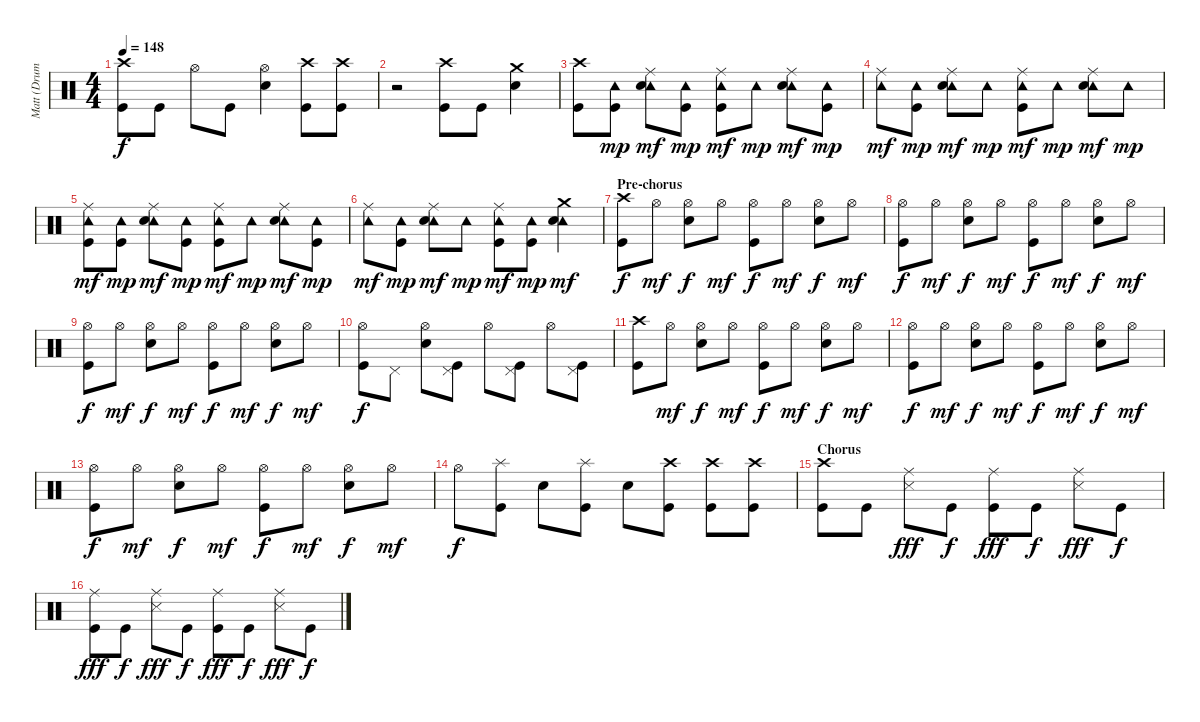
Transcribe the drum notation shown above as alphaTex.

\track ("Matt (Drums)" "Matt (Drum") {instrument percussion}
\staff {score}
\articulation defaults
\ts (4 4)
\tempo 148
\clef neutral
\ks c
("Crash high (hit)" "Kick (hit)").8{dy f} "Kick (hit)".8 "Hi-Hat (open)".8 "Kick (hit)".8 ("Hi-Hat (open)" "Electric Snare (hit)").4 ("Crash high (hit)" "Kick (hit)").8 ("Crash high (hit)" "Kick (hit)").8 |
r.2 ("Crash high (hit)" "Kick (hit)").8 "Kick (hit)".8 ("Crash medium (hit)" "Electric Snare (hit)").4 |
("Crash high (hit)" "Kick (hit)").8 ("Tambourine (hit)" "Kick (hit)").8{dy mp} ("Ride (middle)" "Tambourine (hit)" "Electric Snare (hit)").8{dy mf} ("Tambourine (hit)" "Kick (hit)").8{dy mp} ("Ride (middle)" "Tambourine (hit)" "Kick (hit)").8{dy mf} "Tambourine (hit)".8{dy mp} ("Ride (middle)" "Tambourine (hit)" "Electric Snare (hit)").8{dy mf} ("Tambourine (hit)" "Kick (hit)").8{dy mp} |
("Ride (middle)" "Tambourine (hit)").8{dy mf} ("Tambourine (hit)" "Kick (hit)").8{dy mp} ("Ride (middle)" "Tambourine (hit)" "Electric Snare (hit)").8{dy mf} "Tambourine (hit)".8{dy mp} ("Ride (middle)" "Tambourine (hit)" "Kick (hit)").8{dy mf} "Tambourine (hit)".8{dy mp} ("Ride (middle)" "Tambourine (hit)" "Electric Snare (hit)").8{dy mf} "Tambourine (hit)".8{dy mp} |
("Ride (middle)" "Tambourine (hit)" "Kick (hit)").8{dy mf} ("Tambourine (hit)" "Kick (hit)").8{dy mp} ("Ride (middle)" "Tambourine (hit)" "Electric Snare (hit)").8{dy mf} ("Tambourine (hit)" "Kick (hit)").8{dy mp} ("Ride (middle)" "Tambourine (hit)" "Kick (hit)").8{dy mf} "Tambourine (hit)".8{dy mp} ("Ride (middle)" "Tambourine (hit)" "Electric Snare (hit)").8{dy mf} ("Tambourine (hit)" "Kick (hit)").8{dy mp} |
("Ride (middle)" "Tambourine (hit)").8{dy mf} ("Tambourine (hit)" "Kick (hit)").8{dy mp} ("Ride (middle)" "Tambourine (hit)" "Electric Snare (hit)").8{dy mf} "Tambourine (hit)".8{dy mp} ("Ride (middle)" "Tambourine (hit)" "Kick (hit)").8{dy mf} ("Tambourine (hit)" "Kick (hit)").8{dy mp} ("Crash medium (hit)" "Tambourine (hit)" "Electric Snare (hit)").4{dy mf} |
\section ("" "Pre-chorus")
("Crash high (hit)" "Kick (hit)").8{dy f} "Hi-Hat (open)".8{dy mf} ("Hi-Hat (open)" "Electric Snare (hit)").8{dy f} "Hi-Hat (open)".8{dy mf} ("Hi-Hat (open)" "Kick (hit)").8{dy f} "Hi-Hat (open)".8{dy mf} ("Hi-Hat (open)" "Electric Snare (hit)").8{dy f} "Hi-Hat (open)".8{dy mf} |
("Hi-Hat (open)" "Kick (hit)").8{dy f} "Hi-Hat (open)".8{dy mf} ("Hi-Hat (open)" "Electric Snare (hit)").8{dy f} "Hi-Hat (open)".8{dy mf} ("Hi-Hat (open)" "Kick (hit)").8{dy f} "Hi-Hat (open)".8{dy mf} ("Hi-Hat (open)" "Electric Snare (hit)").8{dy f} "Hi-Hat (open)".8{dy mf} |
("Hi-Hat (open)" "Kick (hit)").8{dy f} "Hi-Hat (open)".8{dy mf} ("Hi-Hat (open)" "Electric Snare (hit)").8{dy f} "Hi-Hat (open)".8{dy mf} ("Hi-Hat (open)" "Kick (hit)").8{dy f} "Hi-Hat (open)".8{dy mf} ("Hi-Hat (open)" "Electric Snare (hit)").8{dy f} "Hi-Hat (open)".8{dy mf} |
("Hi-Hat (open)" "Kick (hit)").8{dy f} "Pedal Hi-Hat (hit)".8 ("Hi-Hat (open)" "Electric Snare (hit)").8 ("Pedal Hi-Hat (hit)" "Kick (hit)").8 "Hi-Hat (open)".8 ("Pedal Hi-Hat (hit)" "Kick (hit)").8 "Hi-Hat (open)".8 ("Pedal Hi-Hat (hit)" "Kick (hit)").8 |
("Crash high (hit)" "Kick (hit)").8 "Hi-Hat (open)".8{dy mf} ("Hi-Hat (open)" "Electric Snare (hit)").8{dy f} "Hi-Hat (open)".8{dy mf} ("Hi-Hat (open)" "Kick (hit)").8{dy f} "Hi-Hat (open)".8{dy mf} ("Hi-Hat (open)" "Electric Snare (hit)").8{dy f} "Hi-Hat (open)".8{dy mf} |
("Hi-Hat (open)" "Kick (hit)").8{dy f} "Hi-Hat (open)".8{dy mf} ("Hi-Hat (open)" "Electric Snare (hit)").8{dy f} "Hi-Hat (open)".8{dy mf} ("Hi-Hat (open)" "Kick (hit)").8{dy f} "Hi-Hat (open)".8{dy mf} ("Hi-Hat (open)" "Electric Snare (hit)").8{dy f} "Hi-Hat (open)".8{dy mf} |
("Hi-Hat (open)" "Kick (hit)").8{dy f} "Hi-Hat (open)".8{dy mf} ("Hi-Hat (open)" "Electric Snare (hit)").8{dy f} "Hi-Hat (open)".8{dy mf} ("Hi-Hat (open)" "Kick (hit)").8{dy f} "Hi-Hat (open)".8{dy mf} ("Hi-Hat (open)" "Electric Snare (hit)").8{dy f} "Hi-Hat (open)".8{dy mf} |
"Hi-Hat (open)".8{dy f} ("Splash (hit)" "Kick (hit)").8 "Electric Snare (hit)".8 ("Splash (hit)" "Kick (hit)").8 "Electric Snare (hit)".8 ("Crash high (hit)" "Kick (hit)").8 ("Crash high (hit)" "Kick (hit)").8 ("Crash high (hit)" "Kick (hit)").8 |
\section ("" "Chorus")
("Crash high (hit)" "Kick (hit)").8 "Kick (hit)".8 ("Ride (middle)" "Snare (side stick) 3").8{dy fff} "Kick (hit)".8{dy f} ("Ride (middle)" "Kick (hit)").8{dy fff} "Kick (hit)".8{dy f} ("Ride (middle)" "Snare (side stick) 3").8{dy fff} "Kick (hit)".8{dy f} |
("Ride (middle)" "Kick (hit)").8{dy fff} "Kick (hit)".8{dy f} ("Ride (middle)" "Snare (side stick) 3").8{dy fff} "Kick (hit)".8{dy f} ("Ride (middle)" "Kick (hit)").8{dy fff} "Kick (hit)".8{dy f} ("Ride (middle)" "Snare (side stick) 3").8{dy fff} "Kick (hit)".8{dy f}
